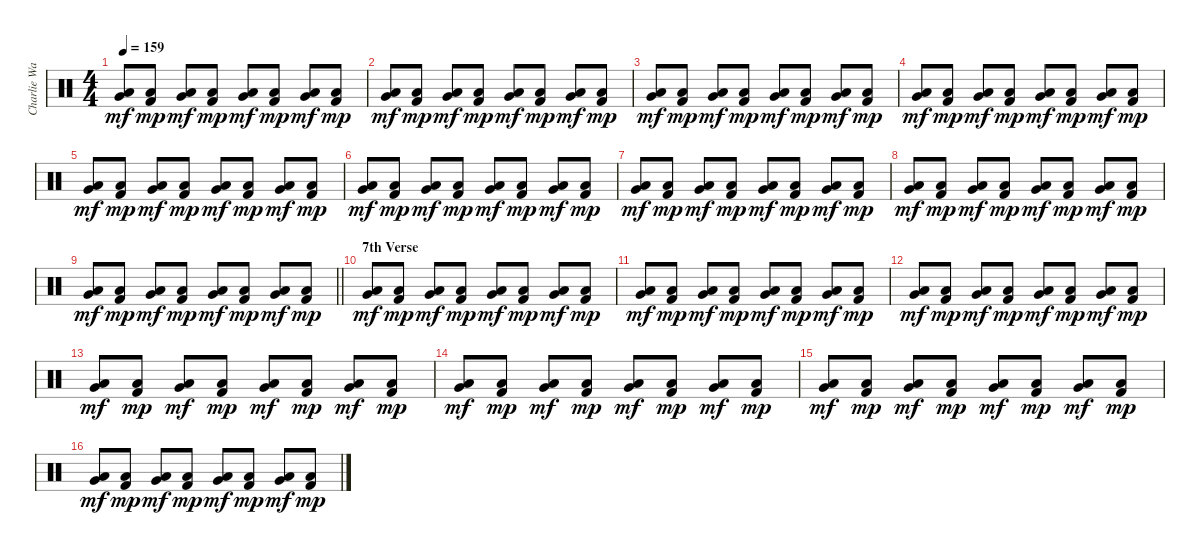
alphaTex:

\track ("Charlie Watts (Drums)" "Charlie Wa") {instrument percussion}
\staff {score}
\articulation defaults
\ts (4 4)
\tempo 159
\clef neutral
\ks c
("Very Low Tom (hit)" "Low Floor Tom (hit)").8{dy mf} ("Low Floor Tom (hit)" "Kick (hit) 2").8{dy mp} ("Very Low Tom (hit)" "Low Floor Tom (hit)").8{dy mf} ("Low Floor Tom (hit)" "Kick (hit) 2").8{dy mp} ("Very Low Tom (hit)" "Low Floor Tom (hit)").8{dy mf} ("Low Floor Tom (hit)" "Kick (hit) 2").8{dy mp} ("Very Low Tom (hit)" "Low Floor Tom (hit)").8{dy mf} ("Low Floor Tom (hit)" "Kick (hit) 2").8{dy mp} |
("Very Low Tom (hit)" "Low Floor Tom (hit)").8{dy mf} ("Low Floor Tom (hit)" "Kick (hit) 2").8{dy mp} ("Very Low Tom (hit)" "Low Floor Tom (hit)").8{dy mf} ("Low Floor Tom (hit)" "Kick (hit) 2").8{dy mp} ("Very Low Tom (hit)" "Low Floor Tom (hit)").8{dy mf} ("Low Floor Tom (hit)" "Kick (hit) 2").8{dy mp} ("Very Low Tom (hit)" "Low Floor Tom (hit)").8{dy mf} ("Low Floor Tom (hit)" "Kick (hit) 2").8{dy mp} |
("Very Low Tom (hit)" "Low Floor Tom (hit)").8{dy mf} ("Low Floor Tom (hit)" "Kick (hit) 2").8{dy mp} ("Very Low Tom (hit)" "Low Floor Tom (hit)").8{dy mf} ("Low Floor Tom (hit)" "Kick (hit) 2").8{dy mp} ("Very Low Tom (hit)" "Low Floor Tom (hit)").8{dy mf} ("Low Floor Tom (hit)" "Kick (hit) 2").8{dy mp} ("Very Low Tom (hit)" "Low Floor Tom (hit)").8{dy mf} ("Low Floor Tom (hit)" "Kick (hit) 2").8{dy mp} |
("Very Low Tom (hit)" "Low Floor Tom (hit)").8{dy mf} ("Low Floor Tom (hit)" "Kick (hit) 2").8{dy mp} ("Very Low Tom (hit)" "Low Floor Tom (hit)").8{dy mf} ("Low Floor Tom (hit)" "Kick (hit) 2").8{dy mp} ("Very Low Tom (hit)" "Low Floor Tom (hit)").8{dy mf} ("Low Floor Tom (hit)" "Kick (hit) 2").8{dy mp} ("Very Low Tom (hit)" "Low Floor Tom (hit)").8{dy mf} ("Low Floor Tom (hit)" "Kick (hit) 2").8{dy mp} |
("Very Low Tom (hit)" "Low Floor Tom (hit)").8{dy mf} ("Low Floor Tom (hit)" "Kick (hit) 2").8{dy mp} ("Very Low Tom (hit)" "Low Floor Tom (hit)").8{dy mf} ("Low Floor Tom (hit)" "Kick (hit) 2").8{dy mp} ("Very Low Tom (hit)" "Low Floor Tom (hit)").8{dy mf} ("Low Floor Tom (hit)" "Kick (hit) 2").8{dy mp} ("Very Low Tom (hit)" "Low Floor Tom (hit)").8{dy mf} ("Low Floor Tom (hit)" "Kick (hit) 2").8{dy mp} |
("Very Low Tom (hit)" "Low Floor Tom (hit)").8{dy mf} ("Low Floor Tom (hit)" "Kick (hit) 2").8{dy mp} ("Very Low Tom (hit)" "Low Floor Tom (hit)").8{dy mf} ("Low Floor Tom (hit)" "Kick (hit) 2").8{dy mp} ("Very Low Tom (hit)" "Low Floor Tom (hit)").8{dy mf} ("Low Floor Tom (hit)" "Kick (hit) 2").8{dy mp} ("Very Low Tom (hit)" "Low Floor Tom (hit)").8{dy mf} ("Low Floor Tom (hit)" "Kick (hit) 2").8{dy mp} |
("Very Low Tom (hit)" "Low Floor Tom (hit)").8{dy mf} ("Low Floor Tom (hit)" "Kick (hit) 2").8{dy mp} ("Very Low Tom (hit)" "Low Floor Tom (hit)").8{dy mf} ("Low Floor Tom (hit)" "Kick (hit) 2").8{dy mp} ("Very Low Tom (hit)" "Low Floor Tom (hit)").8{dy mf} ("Low Floor Tom (hit)" "Kick (hit) 2").8{dy mp} ("Very Low Tom (hit)" "Low Floor Tom (hit)").8{dy mf} ("Low Floor Tom (hit)" "Kick (hit) 2").8{dy mp} |
("Very Low Tom (hit)" "Low Floor Tom (hit)").8{dy mf} ("Low Floor Tom (hit)" "Kick (hit) 2").8{dy mp} ("Very Low Tom (hit)" "Low Floor Tom (hit)").8{dy mf} ("Low Floor Tom (hit)" "Kick (hit) 2").8{dy mp} ("Very Low Tom (hit)" "Low Floor Tom (hit)").8{dy mf} ("Low Floor Tom (hit)" "Kick (hit) 2").8{dy mp} ("Very Low Tom (hit)" "Low Floor Tom (hit)").8{dy mf} ("Low Floor Tom (hit)" "Kick (hit) 2").8{dy mp} |
\barLineRight lightlight
("Very Low Tom (hit)" "Low Floor Tom (hit)").8{dy mf} ("Low Floor Tom (hit)" "Kick (hit) 2").8{dy mp} ("Very Low Tom (hit)" "Low Floor Tom (hit)").8{dy mf} ("Low Floor Tom (hit)" "Kick (hit) 2").8{dy mp} ("Very Low Tom (hit)" "Low Floor Tom (hit)").8{dy mf} ("Low Floor Tom (hit)" "Kick (hit) 2").8{dy mp} ("Very Low Tom (hit)" "Low Floor Tom (hit)").8{dy mf} ("Low Floor Tom (hit)" "Kick (hit) 2").8{dy mp} |
\section ("" "7th Verse")
("Very Low Tom (hit)" "Low Floor Tom (hit)").8{dy mf} ("Low Floor Tom (hit)" "Kick (hit) 2").8{dy mp} ("Very Low Tom (hit)" "Low Floor Tom (hit)").8{dy mf} ("Low Floor Tom (hit)" "Kick (hit) 2").8{dy mp} ("Very Low Tom (hit)" "Low Floor Tom (hit)").8{dy mf} ("Low Floor Tom (hit)" "Kick (hit) 2").8{dy mp} ("Very Low Tom (hit)" "Low Floor Tom (hit)").8{dy mf} ("Low Floor Tom (hit)" "Kick (hit) 2").8{dy mp} |
("Very Low Tom (hit)" "Low Floor Tom (hit)").8{dy mf} ("Low Floor Tom (hit)" "Kick (hit) 2").8{dy mp} ("Very Low Tom (hit)" "Low Floor Tom (hit)").8{dy mf} ("Low Floor Tom (hit)" "Kick (hit) 2").8{dy mp} ("Very Low Tom (hit)" "Low Floor Tom (hit)").8{dy mf} ("Low Floor Tom (hit)" "Kick (hit) 2").8{dy mp} ("Very Low Tom (hit)" "Low Floor Tom (hit)").8{dy mf} ("Low Floor Tom (hit)" "Kick (hit) 2").8{dy mp} |
("Very Low Tom (hit)" "Low Floor Tom (hit)").8{dy mf} ("Low Floor Tom (hit)" "Kick (hit) 2").8{dy mp} ("Very Low Tom (hit)" "Low Floor Tom (hit)").8{dy mf} ("Low Floor Tom (hit)" "Kick (hit) 2").8{dy mp} ("Very Low Tom (hit)" "Low Floor Tom (hit)").8{dy mf} ("Low Floor Tom (hit)" "Kick (hit) 2").8{dy mp} ("Very Low Tom (hit)" "Low Floor Tom (hit)").8{dy mf} ("Low Floor Tom (hit)" "Kick (hit) 2").8{dy mp} |
("Very Low Tom (hit)" "Low Floor Tom (hit)").8{dy mf} ("Low Floor Tom (hit)" "Kick (hit) 2").8{dy mp} ("Very Low Tom (hit)" "Low Floor Tom (hit)").8{dy mf} ("Low Floor Tom (hit)" "Kick (hit) 2").8{dy mp} ("Very Low Tom (hit)" "Low Floor Tom (hit)").8{dy mf} ("Low Floor Tom (hit)" "Kick (hit) 2").8{dy mp} ("Very Low Tom (hit)" "Low Floor Tom (hit)").8{dy mf} ("Low Floor Tom (hit)" "Kick (hit) 2").8{dy mp} |
("Very Low Tom (hit)" "Low Floor Tom (hit)").8{dy mf} ("Low Floor Tom (hit)" "Kick (hit) 2").8{dy mp} ("Very Low Tom (hit)" "Low Floor Tom (hit)").8{dy mf} ("Low Floor Tom (hit)" "Kick (hit) 2").8{dy mp} ("Very Low Tom (hit)" "Low Floor Tom (hit)").8{dy mf} ("Low Floor Tom (hit)" "Kick (hit) 2").8{dy mp} ("Very Low Tom (hit)" "Low Floor Tom (hit)").8{dy mf} ("Low Floor Tom (hit)" "Kick (hit) 2").8{dy mp} |
("Very Low Tom (hit)" "Low Floor Tom (hit)").8{dy mf} ("Low Floor Tom (hit)" "Kick (hit) 2").8{dy mp} ("Very Low Tom (hit)" "Low Floor Tom (hit)").8{dy mf} ("Low Floor Tom (hit)" "Kick (hit) 2").8{dy mp} ("Very Low Tom (hit)" "Low Floor Tom (hit)").8{dy mf} ("Low Floor Tom (hit)" "Kick (hit) 2").8{dy mp} ("Very Low Tom (hit)" "Low Floor Tom (hit)").8{dy mf} ("Low Floor Tom (hit)" "Kick (hit) 2").8{dy mp} |
("Very Low Tom (hit)" "Low Floor Tom (hit)").8{dy mf} ("Low Floor Tom (hit)" "Kick (hit) 2").8{dy mp} ("Very Low Tom (hit)" "Low Floor Tom (hit)").8{dy mf} ("Low Floor Tom (hit)" "Kick (hit) 2").8{dy mp} ("Very Low Tom (hit)" "Low Floor Tom (hit)").8{dy mf} ("Low Floor Tom (hit)" "Kick (hit) 2").8{dy mp} ("Very Low Tom (hit)" "Low Floor Tom (hit)").8{dy mf} ("Low Floor Tom (hit)" "Kick (hit) 2").8{dy mp}
